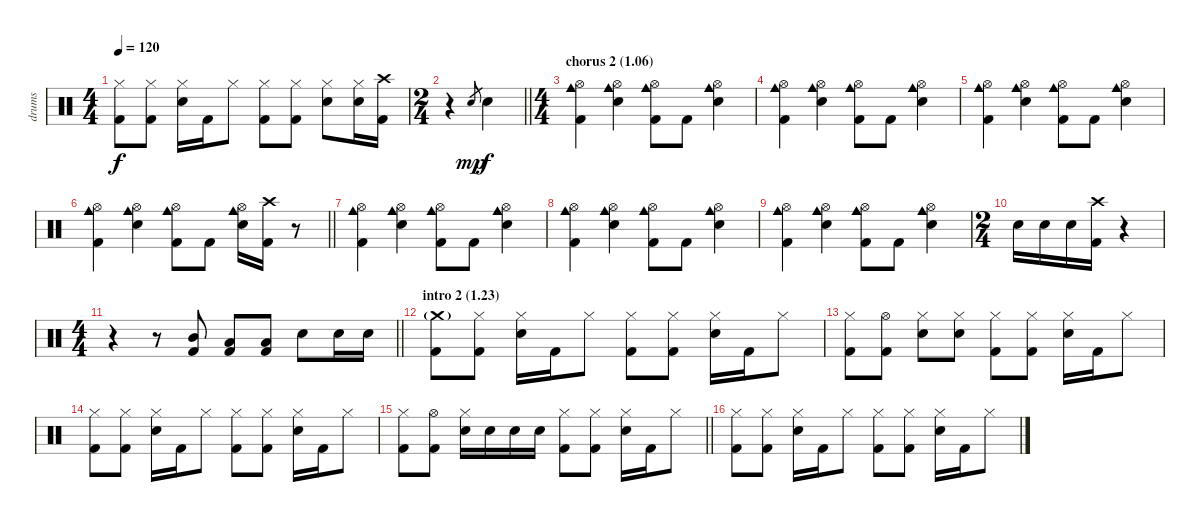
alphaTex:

\track ("drums" "drums") {instrument percussion}
\staff {score}
\articulation defaults
\ts (4 4)
\tempo 120
\clef neutral
\ks c
("Hi-Hat (closed)" "Kick (hit) 2").8{dy f} ("Hi-Hat (closed)" "Kick (hit) 2").8 ("Hi-Hat (closed)" "Electric Snare (hit)").16 "Kick (hit) 2".16 "Hi-Hat (closed)".8 ("Hi-Hat (closed)" "Kick (hit) 2").8 ("Hi-Hat (closed)" "Kick (hit) 2").8 ("Hi-Hat (closed)" "Electric Snare (hit)").8 ("Hi-Hat (closed)" "Electric Snare (hit)").16 ("Crash high (hit)" "Kick (hit) 2").16 |
\ts (2 4)
\barLineRight lightlight
r.4 "Electric Snare (hit)".8{gr dy mp} "Electric Snare (hit)".4{dy f} |
\ts (4 4)
\section ("" "chorus 2 (1.06)")
("Hi-Hat (open)" "Cowbell medium (hit)" "Kick (hit) 2").4 ("Hi-Hat (open)" "Cowbell medium (hit)" "Electric Snare (hit)").4 ("Hi-Hat (open)" "Cowbell medium (hit)" "Kick (hit) 2").8 "Kick (hit) 2".8 ("Hi-Hat (open)" "Cowbell medium (hit)" "Electric Snare (hit)").4 |
("Hi-Hat (open)" "Cowbell medium (hit)" "Kick (hit) 2").4 ("Hi-Hat (open)" "Cowbell medium (hit)" "Electric Snare (hit)").4 ("Hi-Hat (open)" "Cowbell medium (hit)" "Kick (hit) 2").8 "Kick (hit) 2".8 ("Hi-Hat (open)" "Cowbell medium (hit)" "Electric Snare (hit)").4 |
("Hi-Hat (open)" "Cowbell medium (hit)" "Kick (hit) 2").4 ("Hi-Hat (open)" "Cowbell medium (hit)" "Electric Snare (hit)").4 ("Hi-Hat (open)" "Cowbell medium (hit)" "Kick (hit) 2").8 "Kick (hit) 2".8 ("Hi-Hat (open)" "Cowbell medium (hit)" "Electric Snare (hit)").4 |
\barLineRight lightlight
("Hi-Hat (open)" "Cowbell medium (hit)" "Kick (hit) 2").4 ("Hi-Hat (open)" "Cowbell medium (hit)" "Electric Snare (hit)").4 ("Hi-Hat (open)" "Cowbell medium (hit)" "Kick (hit) 2").8 "Kick (hit) 2".8 ("Hi-Hat (open)" "Cowbell medium (hit)" "Electric Snare (hit)").16 ("Crash high (hit)" "Kick (hit) 2").16 r.8 |
("Hi-Hat (open)" "Cowbell medium (hit)" "Kick (hit) 2").4 ("Hi-Hat (open)" "Cowbell medium (hit)" "Electric Snare (hit)").4 ("Hi-Hat (open)" "Cowbell medium (hit)" "Kick (hit) 2").8 "Kick (hit) 2".8 ("Hi-Hat (open)" "Cowbell medium (hit)" "Electric Snare (hit)").4 |
("Hi-Hat (open)" "Cowbell medium (hit)" "Kick (hit) 2").4 ("Hi-Hat (open)" "Cowbell medium (hit)" "Electric Snare (hit)").4 ("Hi-Hat (open)" "Cowbell medium (hit)" "Kick (hit) 2").8 "Kick (hit) 2".8 ("Hi-Hat (open)" "Cowbell medium (hit)" "Electric Snare (hit)").4 |
("Hi-Hat (open)" "Cowbell medium (hit)" "Kick (hit) 2").4 ("Hi-Hat (open)" "Cowbell medium (hit)" "Electric Snare (hit)").4 ("Hi-Hat (open)" "Cowbell medium (hit)" "Kick (hit) 2").8 "Kick (hit) 2".8 ("Hi-Hat (open)" "Cowbell medium (hit)" "Electric Snare (hit)").4 |
\ts (2 4)
"Electric Snare (hit)".16 "Electric Snare (hit)".16 "Electric Snare (hit)".16 ("Crash high (hit)" "Kick (hit) 2").16 r.4 |
\ts (4 4)
\barLineRight lightlight
r.4 r.8 ("Mid Tom (hit)" "Kick (hit) 2").8 ("Low Tom (hit)" "Kick (hit) 2").8 ("Low Tom (hit)" "Kick (hit) 2").8 "Electric Snare (hit)".8 "Electric Snare (hit)".16 "Electric Snare (hit)".16 |
\section ("" "intro 2 (1.23)")
("Crash medium (hit)"{g} "Kick (hit) 2").8 ("Hi-Hat (closed)" "Kick (hit) 2").8 ("Hi-Hat (closed)" "Electric Snare (hit)").16 "Kick (hit) 2".16 "Hi-Hat (closed)".8 ("Hi-Hat (closed)" "Kick (hit) 2").8 ("Hi-Hat (closed)" "Kick (hit) 2").8 ("Hi-Hat (closed)" "Electric Snare (hit)").16 "Kick (hit) 2".16 "Hi-Hat (closed)".8 |
("Hi-Hat (closed)" "Kick (hit) 2").8 ("Hi-Hat (open)" "Kick (hit) 2").8 ("Hi-Hat (closed)" "Electric Snare (hit)").8 ("Hi-Hat (closed)" "Electric Snare (hit)").8 ("Hi-Hat (closed)" "Kick (hit) 2").8 ("Hi-Hat (closed)" "Kick (hit) 2").8 ("Hi-Hat (closed)" "Electric Snare (hit)").16 "Kick (hit) 2".16 "Hi-Hat (closed)".8 |
("Hi-Hat (closed)" "Kick (hit) 2").8 ("Hi-Hat (closed)" "Kick (hit) 2").8 ("Hi-Hat (closed)" "Electric Snare (hit)").16 "Kick (hit) 2".16 "Hi-Hat (closed)".8 ("Hi-Hat (closed)" "Kick (hit) 2").8 ("Hi-Hat (closed)" "Kick (hit) 2").8 ("Hi-Hat (closed)" "Electric Snare (hit)").16 "Kick (hit) 2".16 "Hi-Hat (closed)".8 |
\barLineRight lightlight
("Hi-Hat (closed)" "Kick (hit) 2").8 ("Hi-Hat (open)" "Kick (hit) 2").8 ("Hi-Hat (closed)" "Electric Snare (hit)").16 "Electric Snare (hit)".16 "Electric Snare (hit)".16 "Electric Snare (hit)".16 ("Hi-Hat (closed)" "Kick (hit) 2").8 ("Hi-Hat (closed)" "Kick (hit) 2").8 ("Hi-Hat (closed)" "Electric Snare (hit)").16 "Kick (hit) 2".16 "Hi-Hat (closed)".8 |
("Hi-Hat (closed)" "Kick (hit) 2").8 ("Hi-Hat (closed)" "Kick (hit) 2").8 ("Hi-Hat (closed)" "Electric Snare (hit)").16 "Kick (hit) 2".16 "Hi-Hat (closed)".8 ("Hi-Hat (closed)" "Kick (hit) 2").8 ("Hi-Hat (closed)" "Kick (hit) 2").8 ("Hi-Hat (closed)" "Electric Snare (hit)").16 "Kick (hit) 2".16 "Hi-Hat (closed)".8
